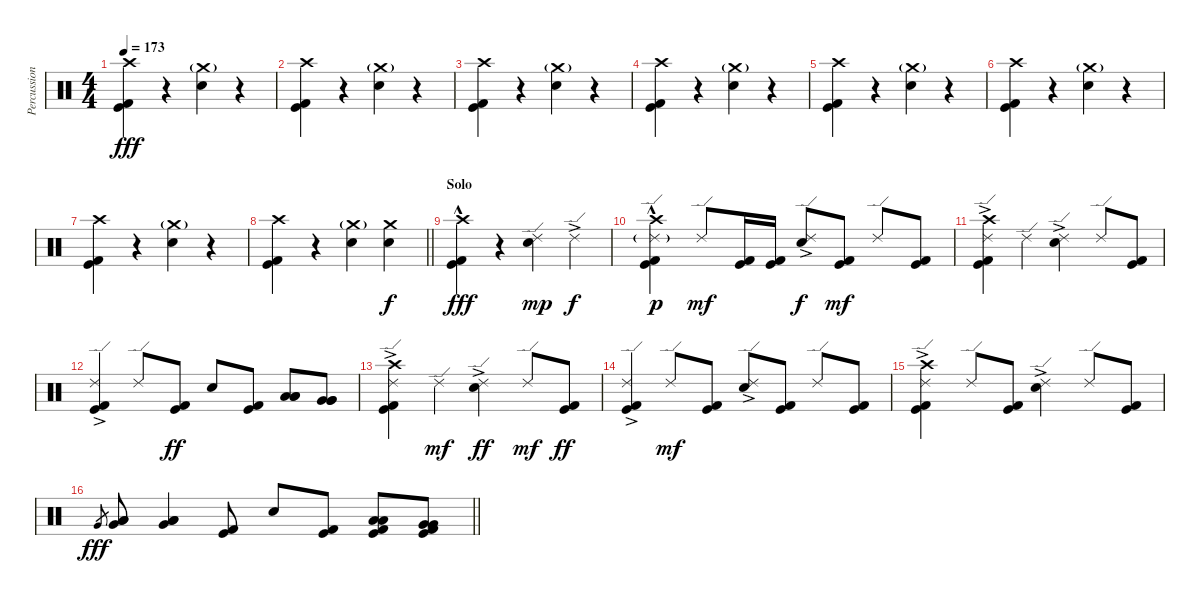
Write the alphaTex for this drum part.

\track ("Percussion" "Percussion") {instrument percussion}
\staff {score}
\articulation defaults
\ts (4 4)
\tempo 173
\clef neutral
\ks c
("Crash high (hit)" "Kick (hit)" "Kick (hit) 2").4{dy fff} r.4 ("Crash medium (hit)"{g} "Electric Snare (hit)").4 r.4 |
("Crash high (hit)" "Kick (hit)" "Kick (hit) 2").4 r.4 ("Crash medium (hit)"{g} "Electric Snare (hit)").4 r.4 |
("Crash high (hit)" "Kick (hit)" "Kick (hit) 2").4 r.4 ("Crash medium (hit)"{g} "Electric Snare (hit)").4 r.4 |
("Crash high (hit)" "Kick (hit)" "Kick (hit) 2").4 r.4 ("Crash medium (hit)"{g} "Electric Snare (hit)").4 r.4 |
("Crash high (hit)" "Kick (hit)" "Kick (hit) 2").4 r.4 ("Crash medium (hit)"{g} "Electric Snare (hit)").4 r.4 |
("Crash high (hit)" "Kick (hit)" "Kick (hit) 2").4 r.4 ("Crash medium (hit)"{g} "Electric Snare (hit)").4 r.4 |
("Crash high (hit)" "Kick (hit)" "Kick (hit) 2").4 r.4 ("Crash medium (hit)"{g} "Electric Snare (hit)").4 r.4 |
\barLineRight lightlight
("Crash high (hit)" "Kick (hit)" "Kick (hit) 2").4 r.4 ("Crash medium (hit)"{g} "Electric Snare (hit)").4 ("Crash medium (hit)" "Electric Snare (hit)").4{dy f} |
\section ("" "Solo")
("Crash high (hit)"{hac} "Kick (hit)" "Kick (hit) 2").4{dy fff} r.4 ("Ride (edge) 2" "Electric Snare (hit)").4{dy mp} "Ride (edge) 2"{ac}.4{dy f} |
("Crash high (hit)"{hac} "Ride (edge) 2"{g} "Kick (hit)" "Kick (hit) 2").4{dy p} "Ride (edge) 2".8{dy mf} ("Kick (hit)" "Kick (hit) 2").16 ("Kick (hit)" "Kick (hit) 2").16 ("Ride (edge) 2"{ac} "Electric Snare (hit)").8{dy f} ("Kick (hit)" "Kick (hit) 2").8{dy mf} "Ride (edge) 2".8 ("Kick (hit)" "Kick (hit) 2").8 |
("Crash high (hit)"{ac} "Ride (edge) 2" "Kick (hit)" "Kick (hit) 2").4 "Ride (edge) 2".4 ("Ride (edge) 2"{ac} "Electric Snare (hit)").4 "Ride (edge) 2".8 ("Kick (hit)" "Kick (hit) 2").8 |
("Ride (edge) 2"{ac} "Kick (hit)" "Kick (hit) 2").4 "Ride (edge) 2".8 ("Kick (hit)" "Kick (hit) 2").8{dy ff} "Electric Snare (hit)".8 ("Kick (hit)" "Kick (hit) 2").8 ("Low Tom (hit)" "Low Tom (hit)" "Low Tom (hit)").8 ("Very Low Tom (hit)" "Very Low Tom (hit)" "Very Low Tom (hit)").8 |
("Crash high (hit)" "Ride (edge) 2"{ac} "Kick (hit)" "Kick (hit) 2").4 "Ride (edge) 2".4{dy mf} ("Ride (edge) 2"{ac} "Electric Snare (hit)").4{dy ff} "Ride (edge) 2".8{dy mf} ("Kick (hit)" "Kick (hit) 2").8{dy ff} |
("Ride (edge) 2"{ac} "Kick (hit)" "Kick (hit) 2").4 "Ride (edge) 2".8{dy mf} ("Kick (hit)" "Kick (hit) 2").8 ("Ride (edge) 2"{ac} "Electric Snare (hit)").8 ("Kick (hit)" "Kick (hit) 2").8 "Ride (edge) 2".8 ("Kick (hit)" "Kick (hit) 2").8 |
("Crash high (hit)" "Ride (edge) 2"{ac} "Kick (hit)" "Kick (hit) 2").4 "Ride (edge) 2".8 ("Kick (hit)" "Kick (hit) 2").8 ("Ride (edge) 2"{ac} "Electric Snare (hit)").4 "Ride (edge) 2".8 ("Kick (hit)" "Kick (hit) 2").8 |
\barLineRight lightlight "Very Low Tom (hit)".8{gr dy fff}
("Low Tom (hit)" "Low Tom (hit)" "Very Low Tom (hit)").8 ("Low Tom (hit)" "Low Tom (hit)" "Very Low Tom (hit)").4 ("Kick (hit)" "Kick (hit) 2").8 "Electric Snare (hit)".8 ("Kick (hit)" "Kick (hit) 2").8 ("Low Tom (hit)" "Low Tom (hit)" "Kick (hit)" "Kick (hit) 2").8 ("Very Low Tom (hit)" "Very Low Tom (hit)" "Kick (hit)" "Kick (hit) 2").8
